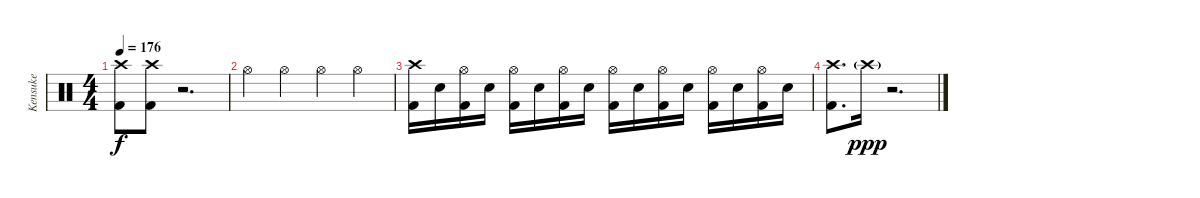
\track ("Kensuke" "Kensuke") {instrument percussion}
\staff {score}
\articulation defaults
\ts (4 4)
\section ("" "")
\tempo 176
\clef neutral
\ks c
("Crash high (hit)" "Kick (hit) 2").8{dy f} ("Crash high (hit)" "Kick (hit) 2").8 r.2{d} |
"Hi-Hat (open)".4 "Hi-Hat (open)".4 "Hi-Hat (open)".4 "Hi-Hat (open)".4 |
("Crash high (hit)" "Kick (hit) 2").16 "Electric Snare (hit)".16 ("Hi-Hat (open)" "Kick (hit) 2").16 "Electric Snare (hit)".16 ("Hi-Hat (open)" "Kick (hit) 2").16 "Electric Snare (hit)".16 ("Hi-Hat (open)" "Kick (hit) 2").16 "Electric Snare (hit)".16 ("Hi-Hat (open)" "Kick (hit) 2").16 "Electric Snare (hit)".16 ("Hi-Hat (open)" "Kick (hit) 2").16 "Electric Snare (hit)".16 ("Hi-Hat (open)" "Kick (hit) 2").16 "Electric Snare (hit)".16 ("Hi-Hat (open)" "Kick (hit) 2").16 "Electric Snare (hit)".16 |
("Crash high (hit)" "Kick (hit) 2").8{d} "Crash high (hit)"{g}.16{dy ppp} r.2{d}
